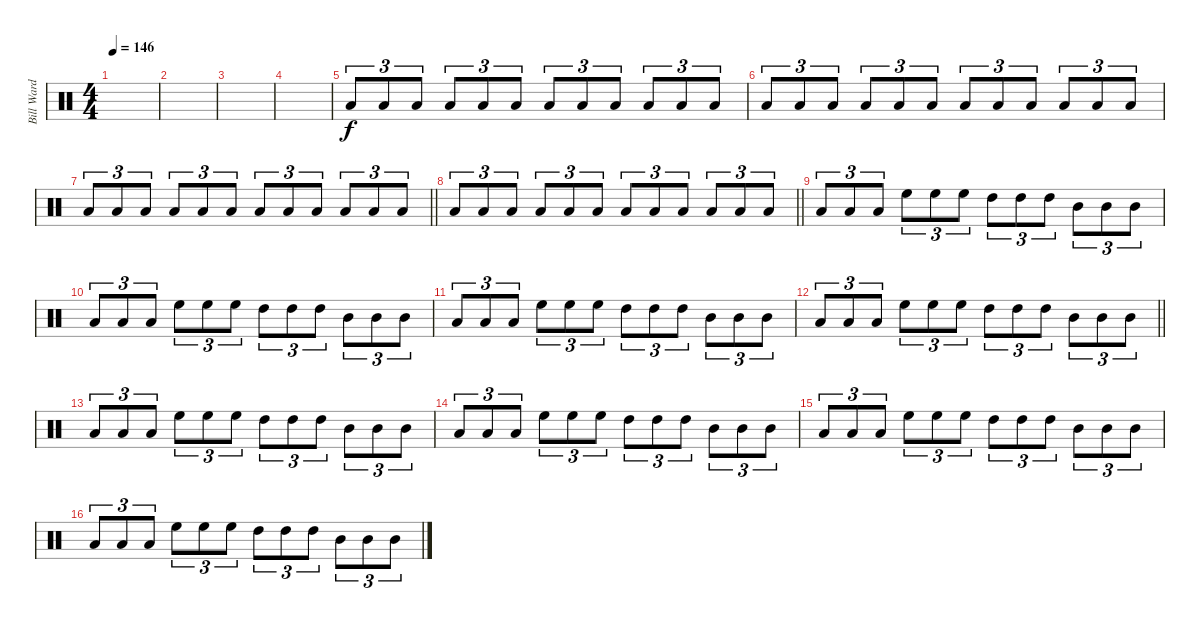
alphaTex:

\track ("Bill Ward - Drum Fills" "Bill Ward ") {instrument percussion}
\staff {score}
\articulation defaults
\ts (4 4)
\tempo 146
\clef neutral
\ks c
|
|
|
|
"Low Tom (hit)".8{tu (3 2)} "Low Tom (hit)".8{tu (3 2)} "Low Tom (hit)".8{tu (3 2)} "Low Tom (hit)".8{tu (3 2)} "Low Tom (hit)".8{tu (3 2)} "Low Tom (hit)".8{tu (3 2)} "Low Tom (hit)".8{tu (3 2)} "Low Tom (hit)".8{tu (3 2)} "Low Tom (hit)".8{tu (3 2)} "Low Tom (hit)".8{tu (3 2)} "Low Tom (hit)".8{tu (3 2)} "Low Tom (hit)".8{tu (3 2)} |
"Low Tom (hit)".8{tu (3 2)} "Low Tom (hit)".8{tu (3 2)} "Low Tom (hit)".8{tu (3 2)} "Low Tom (hit)".8{tu (3 2)} "Low Tom (hit)".8{tu (3 2)} "Low Tom (hit)".8{tu (3 2)} "Low Tom (hit)".8{tu (3 2)} "Low Tom (hit)".8{tu (3 2)} "Low Tom (hit)".8{tu (3 2)} "Low Tom (hit)".8{tu (3 2)} "Low Tom (hit)".8{tu (3 2)} "Low Tom (hit)".8{tu (3 2)} |
\barLineRight lightlight "Low Tom (hit)".8{tu (3 2)} "Low Tom (hit)".8{tu (3 2)} "Low Tom (hit)".8{tu (3 2)} "Low Tom (hit)".8{tu (3 2)} "Low Tom (hit)".8{tu (3 2)} "Low Tom (hit)".8{tu (3 2)} "Low Tom (hit)".8{tu (3 2)} "Low Tom (hit)".8{tu (3 2)} "Low Tom (hit)".8{tu (3 2)} "Low Tom (hit)".8{tu (3 2)} "Low Tom (hit)".8{tu (3 2)} "Low Tom (hit)".8{tu (3 2)}
|
\barLineRight lightlight "Low Tom (hit)".8{tu (3 2)} "Low Tom (hit)".8{tu (3 2)} "Low Tom (hit)".8{tu (3 2)} "Low Tom (hit)".8{tu (3 2)} "Low Tom (hit)".8{tu (3 2)} "Low Tom (hit)".8{tu (3 2)} "Low Tom (hit)".8{tu (3 2)} "Low Tom (hit)".8{tu (3 2)} "Low Tom (hit)".8{tu (3 2)} "Low Tom (hit)".8{tu (3 2)} "Low Tom (hit)".8{tu (3 2)} "Low Tom (hit)".8{tu (3 2)}
|
"Low Tom (hit)".8{tu (3 2)} "Low Tom (hit)".8{tu (3 2)} "Low Tom (hit)".8{tu (3 2)} "High Floor Tom (hit)".8{tu (3 2)} "High Floor Tom (hit)".8{tu (3 2)} "High Floor Tom (hit)".8{tu (3 2)} "High Tom (hit)".8{tu (3 2)} "High Tom (hit)".8{tu (3 2)} "High Tom (hit)".8{tu (3 2)} "Mid Tom (hit)".8{tu (3 2)} "Mid Tom (hit)".8{tu (3 2)} "Mid Tom (hit)".8{tu (3 2)} |
"Low Tom (hit)".8{tu (3 2)} "Low Tom (hit)".8{tu (3 2)} "Low Tom (hit)".8{tu (3 2)} "High Floor Tom (hit)".8{tu (3 2)} "High Floor Tom (hit)".8{tu (3 2)} "High Floor Tom (hit)".8{tu (3 2)} "High Tom (hit)".8{tu (3 2)} "High Tom (hit)".8{tu (3 2)} "High Tom (hit)".8{tu (3 2)} "Mid Tom (hit)".8{tu (3 2)} "Mid Tom (hit)".8{tu (3 2)} "Mid Tom (hit)".8{tu (3 2)} |
"Low Tom (hit)".8{tu (3 2)} "Low Tom (hit)".8{tu (3 2)} "Low Tom (hit)".8{tu (3 2)} "High Floor Tom (hit)".8{tu (3 2)} "High Floor Tom (hit)".8{tu (3 2)} "High Floor Tom (hit)".8{tu (3 2)} "High Tom (hit)".8{tu (3 2)} "High Tom (hit)".8{tu (3 2)} "High Tom (hit)".8{tu (3 2)} "Mid Tom (hit)".8{tu (3 2)} "Mid Tom (hit)".8{tu (3 2)} "Mid Tom (hit)".8{tu (3 2)} |
\barLineRight lightlight "Low Tom (hit)".8{tu (3 2)} "Low Tom (hit)".8{tu (3 2)} "Low Tom (hit)".8{tu (3 2)} "High Floor Tom (hit)".8{tu (3 2)} "High Floor Tom (hit)".8{tu (3 2)} "High Floor Tom (hit)".8{tu (3 2)} "High Tom (hit)".8{tu (3 2)} "High Tom (hit)".8{tu (3 2)} "High Tom (hit)".8{tu (3 2)} "Mid Tom (hit)".8{tu (3 2)} "Mid Tom (hit)".8{tu (3 2)} "Mid Tom (hit)".8{tu (3 2)}
|
"Low Tom (hit)".8{tu (3 2)} "Low Tom (hit)".8{tu (3 2)} "Low Tom (hit)".8{tu (3 2)} "High Floor Tom (hit)".8{tu (3 2)} "High Floor Tom (hit)".8{tu (3 2)} "High Floor Tom (hit)".8{tu (3 2)} "High Tom (hit)".8{tu (3 2)} "High Tom (hit)".8{tu (3 2)} "High Tom (hit)".8{tu (3 2)} "Mid Tom (hit)".8{tu (3 2)} "Mid Tom (hit)".8{tu (3 2)} "Mid Tom (hit)".8{tu (3 2)} |
"Low Tom (hit)".8{tu (3 2)} "Low Tom (hit)".8{tu (3 2)} "Low Tom (hit)".8{tu (3 2)} "High Floor Tom (hit)".8{tu (3 2)} "High Floor Tom (hit)".8{tu (3 2)} "High Floor Tom (hit)".8{tu (3 2)} "High Tom (hit)".8{tu (3 2)} "High Tom (hit)".8{tu (3 2)} "High Tom (hit)".8{tu (3 2)} "Mid Tom (hit)".8{tu (3 2)} "Mid Tom (hit)".8{tu (3 2)} "Mid Tom (hit)".8{tu (3 2)} |
"Low Tom (hit)".8{tu (3 2)} "Low Tom (hit)".8{tu (3 2)} "Low Tom (hit)".8{tu (3 2)} "High Floor Tom (hit)".8{tu (3 2)} "High Floor Tom (hit)".8{tu (3 2)} "High Floor Tom (hit)".8{tu (3 2)} "High Tom (hit)".8{tu (3 2)} "High Tom (hit)".8{tu (3 2)} "High Tom (hit)".8{tu (3 2)} "Mid Tom (hit)".8{tu (3 2)} "Mid Tom (hit)".8{tu (3 2)} "Mid Tom (hit)".8{tu (3 2)} |
"Low Tom (hit)".8{tu (3 2)} "Low Tom (hit)".8{tu (3 2)} "Low Tom (hit)".8{tu (3 2)} "High Floor Tom (hit)".8{tu (3 2)} "High Floor Tom (hit)".8{tu (3 2)} "High Floor Tom (hit)".8{tu (3 2)} "High Tom (hit)".8{tu (3 2)} "High Tom (hit)".8{tu (3 2)} "High Tom (hit)".8{tu (3 2)} "Mid Tom (hit)".8{tu (3 2)} "Mid Tom (hit)".8{tu (3 2)} "Mid Tom (hit)".8{tu (3 2)}
